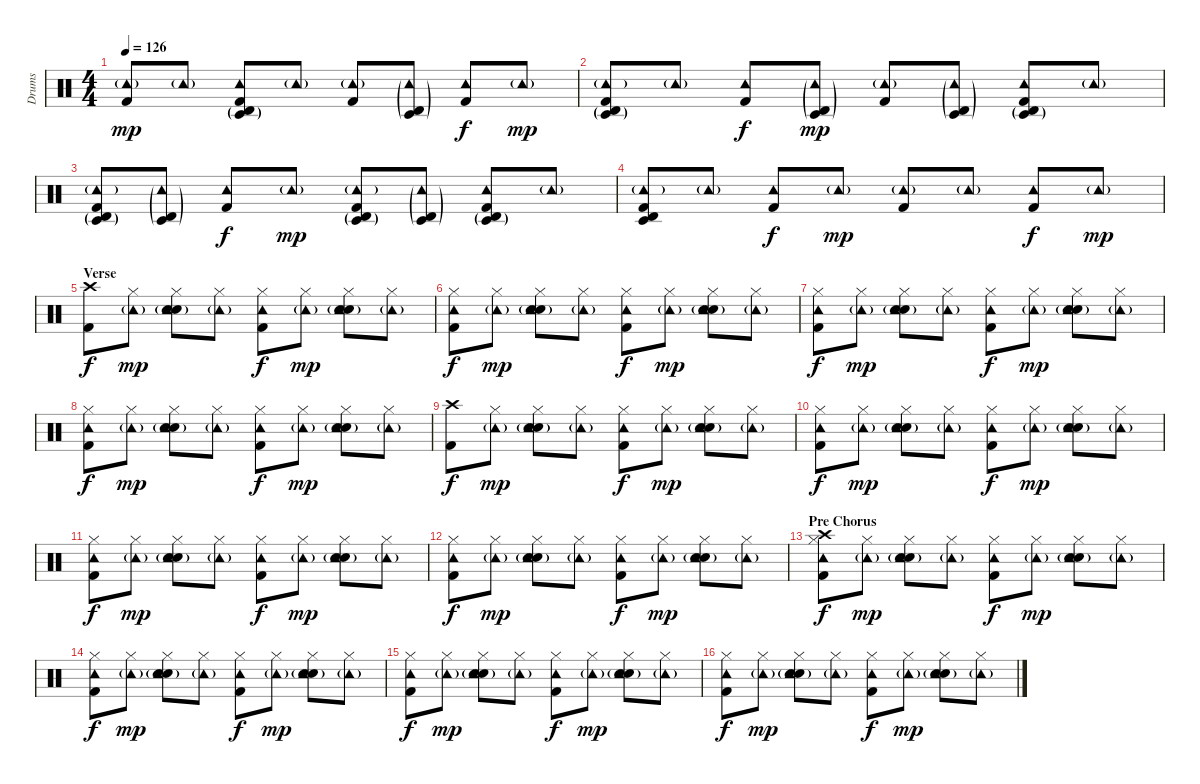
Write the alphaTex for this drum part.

\track ("Drums" "Drums") {instrument percussion}
\staff {score}
\articulation defaults
\ts (4 4)
\tempo 126
\clef neutral
\ks c
("Kick (hit) 2" "Tambourine (hit)"{g}).8{dy mp} "Tambourine (hit)"{g}.8 ("Kick (hit) 2" "Timbale high (hit)"{g} "Timbale low (hit)"{g} "Tambourine (hit)").8 "Tambourine (hit)"{g}.8 ("Kick (hit) 2" "Tambourine (hit)"{g}).8 ("Timbale low (hit)"{g} "Timbale high (hit)"{g} "Tambourine (hit)"{g}).8 ("Kick (hit) 2" "Tambourine (hit)").8{dy f} "Tambourine (hit)"{g}.8{dy mp} |
("Kick (hit) 2" "Timbale low (hit)"{g} "Timbale high (hit)"{g} "Tambourine (hit)"{g}).8 "Tambourine (hit)"{g}.8 ("Kick (hit) 2" "Tambourine (hit)").8{dy f} ("Timbale low (hit)"{g} "Timbale high (hit)"{g} "Tambourine (hit)"{g}).8{dy mp} ("Kick (hit) 2" "Tambourine (hit)"{g}).8 ("Timbale low (hit)"{g} "Timbale high (hit)"{g} "Tambourine (hit)"{g}).8 ("Kick (hit) 2" "Timbale low (hit)"{g} "Timbale high (hit)"{g} "Tambourine (hit)").8 "Tambourine (hit)"{g}.8 |
("Kick (hit) 2" "Timbale low (hit)"{g} "Timbale high (hit)"{g} "Tambourine (hit)"{g}).8 ("Timbale low (hit)"{g} "Timbale high (hit)"{g} "Tambourine (hit)"{g}).8 ("Kick (hit) 2" "Tambourine (hit)").8{dy f} "Tambourine (hit)"{g}.8{dy mp} ("Kick (hit) 2" "Timbale low (hit)"{g} "Timbale high (hit)"{g} "Tambourine (hit)"{g}).8 ("Timbale low (hit)"{g} "Timbale high (hit)"{g} "Tambourine (hit)"{g}).8 ("Kick (hit) 2" "Timbale low (hit)"{g} "Timbale high (hit)"{g} "Tambourine (hit)").8 "Tambourine (hit)"{g}.8 |
("Kick (hit) 2" "Timbale low (hit)" "Timbale high (hit)" "Tambourine (hit)"{g}).8 "Tambourine (hit)"{g}.8 ("Kick (hit) 2" "Tambourine (hit)").8{dy f} "Tambourine (hit)"{g}.8{dy mp} ("Kick (hit) 2" "Tambourine (hit)"{g}).8 "Tambourine (hit)"{g}.8 ("Kick (hit) 2" "Tambourine (hit)").8{dy f} "Tambourine (hit)"{g}.8{dy mp} |
\section ("" "Verse")
("Kick (hit) 2" "Crash high (hit)").8{dy f} ("Hi-Hat (closed)" "Tambourine (hit)"{g}).8{dy mp} ("Snare (hit) 2" "Hi-Hat (closed)" "Tambourine (hit)" "Hand Clap (hit)"{g}).8 ("Hi-Hat (closed)" "Tambourine (hit)"{g}).8 ("Kick (hit) 2" "Hi-Hat (closed)" "Tambourine (hit)").8{dy f} ("Hi-Hat (closed)" "Tambourine (hit)"{g}).8{dy mp} ("Snare (hit) 2" "Hi-Hat (closed)" "Tambourine (hit)" "Hand Clap (hit)"{g}).8 ("Hi-Hat (closed)" "Tambourine (hit)"{g}).8 |
("Kick (hit) 2" "Hi-Hat (closed)" "Tambourine (hit)").8{dy f} ("Hi-Hat (closed)" "Tambourine (hit)"{g}).8{dy mp} ("Snare (hit) 2" "Hi-Hat (closed)" "Tambourine (hit)" "Hand Clap (hit)"{g}).8 ("Hi-Hat (closed)" "Tambourine (hit)"{g}).8 ("Kick (hit) 2" "Hi-Hat (closed)" "Tambourine (hit)").8{dy f} ("Hi-Hat (closed)" "Tambourine (hit)"{g}).8{dy mp} ("Snare (hit) 2" "Hi-Hat (closed)" "Tambourine (hit)" "Hand Clap (hit)"{g}).8 ("Hi-Hat (closed)" "Tambourine (hit)"{g}).8 |
("Kick (hit) 2" "Hi-Hat (closed)" "Tambourine (hit)").8{dy f} ("Hi-Hat (closed)" "Tambourine (hit)"{g}).8{dy mp} ("Snare (hit) 2" "Hi-Hat (closed)" "Tambourine (hit)" "Hand Clap (hit)"{g}).8 ("Hi-Hat (closed)" "Tambourine (hit)"{g}).8 ("Kick (hit) 2" "Hi-Hat (closed)" "Tambourine (hit)").8{dy f} ("Hi-Hat (closed)" "Tambourine (hit)"{g}).8{dy mp} ("Snare (hit) 2" "Hi-Hat (closed)" "Tambourine (hit)" "Hand Clap (hit)"{g}).8 ("Hi-Hat (closed)" "Tambourine (hit)"{g}).8 |
("Kick (hit) 2" "Hi-Hat (closed)" "Tambourine (hit)").8{dy f} ("Hi-Hat (closed)" "Tambourine (hit)"{g}).8{dy mp} ("Snare (hit) 2" "Hi-Hat (closed)" "Tambourine (hit)" "Hand Clap (hit)"{g}).8 ("Hi-Hat (closed)" "Tambourine (hit)"{g}).8 ("Kick (hit) 2" "Hi-Hat (closed)" "Tambourine (hit)").8{dy f} ("Hi-Hat (closed)" "Tambourine (hit)"{g}).8{dy mp} ("Snare (hit) 2" "Hi-Hat (closed)" "Tambourine (hit)" "Hand Clap (hit)"{g}).8 ("Hi-Hat (closed)" "Tambourine (hit)"{g}).8 |
("Kick (hit) 2" "Crash high (hit)").8{dy f} ("Hi-Hat (closed)" "Tambourine (hit)"{g}).8{dy mp} ("Snare (hit) 2" "Hi-Hat (closed)" "Tambourine (hit)" "Hand Clap (hit)"{g}).8 ("Hi-Hat (closed)" "Tambourine (hit)"{g}).8 ("Kick (hit) 2" "Hi-Hat (closed)" "Tambourine (hit)").8{dy f} ("Hi-Hat (closed)" "Tambourine (hit)"{g}).8{dy mp} ("Snare (hit) 2" "Hi-Hat (closed)" "Tambourine (hit)" "Hand Clap (hit)"{g}).8 ("Hi-Hat (closed)" "Tambourine (hit)"{g}).8 |
("Kick (hit) 2" "Hi-Hat (closed)" "Tambourine (hit)").8{dy f} ("Hi-Hat (closed)" "Tambourine (hit)"{g}).8{dy mp} ("Snare (hit) 2" "Hi-Hat (closed)" "Tambourine (hit)" "Hand Clap (hit)"{g}).8 ("Hi-Hat (closed)" "Tambourine (hit)"{g}).8 ("Kick (hit) 2" "Hi-Hat (closed)" "Tambourine (hit)").8{dy f} ("Hi-Hat (closed)" "Tambourine (hit)"{g}).8{dy mp} ("Snare (hit) 2" "Hi-Hat (closed)" "Tambourine (hit)" "Hand Clap (hit)"{g}).8 ("Hi-Hat (closed)" "Tambourine (hit)"{g}).8 |
("Kick (hit) 2" "Hi-Hat (closed)" "Tambourine (hit)").8{dy f} ("Hi-Hat (closed)" "Tambourine (hit)"{g}).8{dy mp} ("Snare (hit) 2" "Hi-Hat (closed)" "Tambourine (hit)" "Hand Clap (hit)"{g}).8 ("Hi-Hat (closed)" "Tambourine (hit)"{g}).8 ("Kick (hit) 2" "Hi-Hat (closed)" "Tambourine (hit)").8{dy f} ("Hi-Hat (closed)" "Tambourine (hit)"{g}).8{dy mp} ("Snare (hit) 2" "Hi-Hat (closed)" "Tambourine (hit)" "Hand Clap (hit)"{g}).8 ("Hi-Hat (closed)" "Tambourine (hit)"{g}).8 |
("Kick (hit) 2" "Hi-Hat (closed)" "Tambourine (hit)").8{dy f} ("Hi-Hat (closed)" "Tambourine (hit)"{g}).8{dy mp} ("Snare (hit) 2" "Hi-Hat (closed)" "Tambourine (hit)" "Hand Clap (hit)"{g}).8 ("Hi-Hat (closed)" "Tambourine (hit)"{g}).8 ("Kick (hit) 2" "Hi-Hat (closed)" "Tambourine (hit)").8{dy f} ("Hi-Hat (closed)" "Tambourine (hit)"{g}).8{dy mp} ("Snare (hit) 2" "Hi-Hat (closed)" "Tambourine (hit)" "Hand Clap (hit)"{g}).8 ("Hi-Hat (closed)" "Tambourine (hit)"{g}).8 |
\section ("" "Pre Chorus")
("Kick (hit) 2" "Hi-Hat (closed)" "Tambourine (hit)" "Crash high (hit)").8{dy f} ("Hi-Hat (closed)" "Tambourine (hit)"{g}).8{dy mp} ("Snare (hit) 2" "Hi-Hat (closed)" "Tambourine (hit)" "Hand Clap (hit)"{g}).8 ("Hi-Hat (closed)" "Tambourine (hit)"{g}).8 ("Kick (hit) 2" "Hi-Hat (closed)" "Tambourine (hit)").8{dy f} ("Hi-Hat (closed)" "Tambourine (hit)"{g}).8{dy mp} ("Snare (hit) 2" "Hi-Hat (closed)" "Tambourine (hit)" "Hand Clap (hit)"{g}).8 ("Hi-Hat (closed)" "Tambourine (hit)"{g}).8 |
("Kick (hit) 2" "Hi-Hat (closed)" "Tambourine (hit)").8{dy f} ("Hi-Hat (closed)" "Tambourine (hit)"{g}).8{dy mp} ("Snare (hit) 2" "Hi-Hat (closed)" "Tambourine (hit)" "Hand Clap (hit)"{g}).8 ("Hi-Hat (closed)" "Tambourine (hit)"{g}).8 ("Kick (hit) 2" "Hi-Hat (closed)" "Tambourine (hit)").8{dy f} ("Hi-Hat (closed)" "Tambourine (hit)"{g}).8{dy mp} ("Snare (hit) 2" "Hi-Hat (closed)" "Tambourine (hit)" "Hand Clap (hit)"{g}).8 ("Hi-Hat (closed)" "Tambourine (hit)"{g}).8 |
("Kick (hit) 2" "Hi-Hat (closed)" "Tambourine (hit)").8{dy f} ("Hi-Hat (closed)" "Tambourine (hit)"{g}).8{dy mp} ("Snare (hit) 2" "Hi-Hat (closed)" "Tambourine (hit)" "Hand Clap (hit)"{g}).8 ("Hi-Hat (closed)" "Tambourine (hit)"{g}).8 ("Kick (hit) 2" "Hi-Hat (closed)" "Tambourine (hit)").8{dy f} ("Hi-Hat (closed)" "Tambourine (hit)"{g}).8{dy mp} ("Snare (hit) 2" "Hi-Hat (closed)" "Tambourine (hit)" "Hand Clap (hit)"{g}).8 ("Hi-Hat (closed)" "Tambourine (hit)"{g}).8 |
("Kick (hit) 2" "Hi-Hat (closed)" "Tambourine (hit)").8{dy f} ("Hi-Hat (closed)" "Tambourine (hit)"{g}).8{dy mp} ("Snare (hit) 2" "Hi-Hat (closed)" "Tambourine (hit)" "Hand Clap (hit)"{g}).8 ("Hi-Hat (closed)" "Tambourine (hit)"{g}).8 ("Kick (hit) 2" "Hi-Hat (closed)" "Tambourine (hit)").8{dy f} ("Hi-Hat (closed)" "Tambourine (hit)"{g}).8{dy mp} ("Snare (hit) 2" "Hi-Hat (closed)" "Tambourine (hit)" "Hand Clap (hit)"{g}).8 ("Hi-Hat (closed)" "Tambourine (hit)"{g}).8
